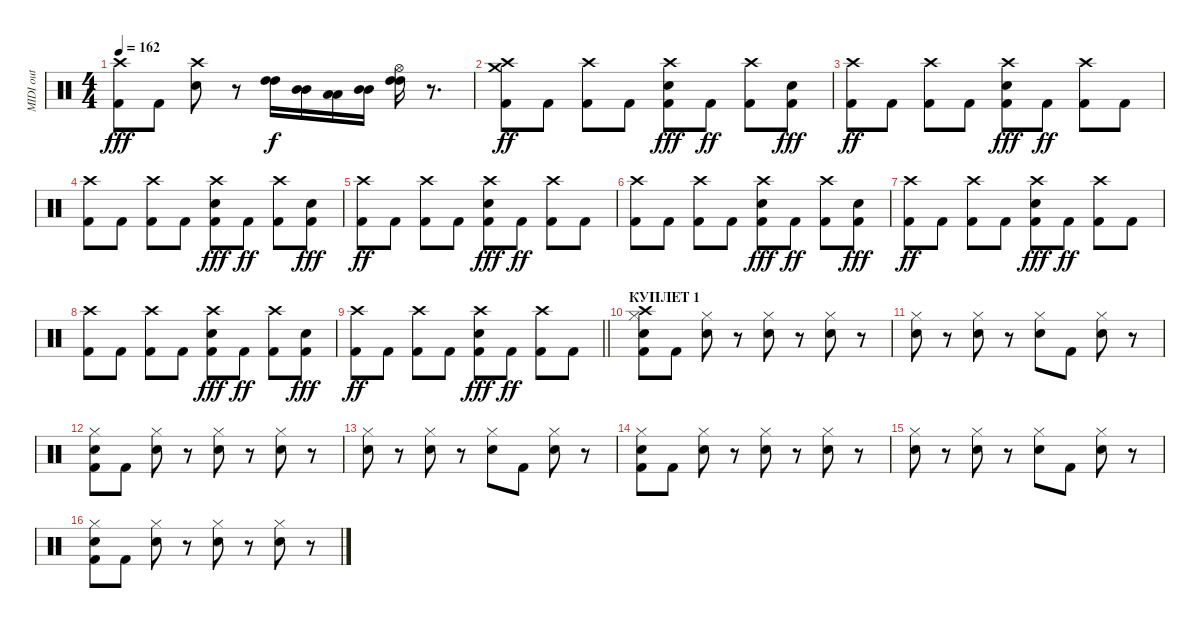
\track ("MIDI out" "MIDI out") {instrument percussion}
\staff {score}
\articulation defaults
\ts (4 4)
\tempo 162
\clef neutral
\ks c
("Crash high (hit)" "Kick (hit) 2").8{dy fff} "Kick (hit) 2".8 ("Crash high (hit)" "Snare (hit) 2").8 r.8 ("High Tom (hit)" "High Tom (hit)").16{dy f} ("Mid Tom (hit)" "Mid Tom (hit)").16 ("Low Tom (hit)" "Low Tom (hit)").16 ("Mid Tom (hit)" "Mid Tom (hit)").16 ("Hi-Hat (open)" "High Tom (hit)" "High Tom (hit)").16 r.8{d} |
("Crash medium (hit)" "Crash high (hit)" "Kick (hit) 2").8{dy ff} "Kick (hit) 2".8 ("Kick (hit) 2" "Crash high (hit)").8 "Kick (hit) 2".8 ("Crash high (hit)" "Kick (hit) 2" "Snare (hit) 2").8{dy fff} "Kick (hit) 2".8{dy ff} ("Kick (hit) 2" "Crash high (hit)").8 ("Kick (hit) 2" "Snare (hit) 2").8{dy fff} |
("Kick (hit) 2" "Crash high (hit)").8{dy ff} "Kick (hit) 2".8 ("Kick (hit) 2" "Crash high (hit)").8 "Kick (hit) 2".8 ("Kick (hit) 2" "Crash high (hit)" "Snare (hit) 2").8{dy fff} "Kick (hit) 2".8{dy ff} ("Kick (hit) 2" "Crash high (hit)").8 "Kick (hit) 2".8 |
("Crash high (hit)" "Kick (hit) 2").8 "Kick (hit) 2".8 ("Kick (hit) 2" "Crash high (hit)").8 "Kick (hit) 2".8 ("Crash high (hit)" "Kick (hit) 2" "Snare (hit) 2").8{dy fff} "Kick (hit) 2".8{dy ff} ("Kick (hit) 2" "Crash high (hit)").8 ("Kick (hit) 2" "Snare (hit) 2").8{dy fff} |
("Kick (hit) 2" "Crash high (hit)").8{dy ff} "Kick (hit) 2".8 ("Kick (hit) 2" "Crash high (hit)").8 "Kick (hit) 2".8 ("Kick (hit) 2" "Crash high (hit)" "Snare (hit) 2").8{dy fff} "Kick (hit) 2".8{dy ff} ("Kick (hit) 2" "Crash high (hit)").8 "Kick (hit) 2".8 |
("Crash high (hit)" "Kick (hit) 2").8 "Kick (hit) 2".8 ("Kick (hit) 2" "Crash high (hit)").8 "Kick (hit) 2".8 ("Crash high (hit)" "Kick (hit) 2" "Snare (hit) 2").8{dy fff} "Kick (hit) 2".8{dy ff} ("Kick (hit) 2" "Crash high (hit)").8 ("Kick (hit) 2" "Snare (hit) 2").8{dy fff} |
("Kick (hit) 2" "Crash high (hit)").8{dy ff} "Kick (hit) 2".8 ("Kick (hit) 2" "Crash high (hit)").8 "Kick (hit) 2".8 ("Kick (hit) 2" "Crash high (hit)" "Snare (hit) 2").8{dy fff} "Kick (hit) 2".8{dy ff} ("Kick (hit) 2" "Crash high (hit)").8 "Kick (hit) 2".8 |
("Crash high (hit)" "Kick (hit) 2").8 "Kick (hit) 2".8 ("Kick (hit) 2" "Crash high (hit)").8 "Kick (hit) 2".8 ("Crash high (hit)" "Kick (hit) 2" "Snare (hit) 2").8{dy fff} "Kick (hit) 2".8{dy ff} ("Kick (hit) 2" "Crash high (hit)").8 ("Kick (hit) 2" "Snare (hit) 2").8{dy fff} |
\barLineRight lightlight
("Kick (hit) 2" "Crash high (hit)").8{dy ff} "Kick (hit) 2".8 ("Kick (hit) 2" "Crash high (hit)").8 "Kick (hit) 2".8 ("Kick (hit) 2" "Crash high (hit)" "Snare (hit) 2").8{dy fff} "Kick (hit) 2".8{dy ff} ("Kick (hit) 2" "Crash high (hit)").8 "Kick (hit) 2".8 |
\section ("" "КУПЛЕТ 1")
("Crash high (hit)" "Snare (hit) 2" "Kick (hit) 2" "Hi-Hat (closed)").8 "Kick (hit) 2".8 ("Snare (hit) 2" "Hi-Hat (closed)").8 r.8 ("Snare (hit) 2" "Hi-Hat (closed)").8 r.8 ("Snare (hit) 2" "Hi-Hat (closed)").8 r.8 |
("Snare (hit) 2" "Hi-Hat (closed)").8 r.8 ("Snare (hit) 2" "Hi-Hat (closed)").8 r.8 ("Snare (hit) 2" "Hi-Hat (closed)").8 "Kick (hit) 2".8 ("Snare (hit) 2" "Hi-Hat (closed)").8 r.8 |
("Snare (hit) 2" "Kick (hit) 2" "Hi-Hat (closed)").8 "Kick (hit) 2".8 ("Snare (hit) 2" "Hi-Hat (closed)").8 r.8 ("Snare (hit) 2" "Hi-Hat (closed)").8 r.8 ("Snare (hit) 2" "Hi-Hat (closed)").8 r.8 |
("Snare (hit) 2" "Hi-Hat (closed)").8 r.8 ("Snare (hit) 2" "Hi-Hat (closed)").8 r.8 ("Snare (hit) 2" "Hi-Hat (closed)").8 "Kick (hit) 2".8 ("Snare (hit) 2" "Hi-Hat (closed)").8 r.8 |
("Snare (hit) 2" "Kick (hit) 2" "Hi-Hat (closed)").8 "Kick (hit) 2".8 ("Snare (hit) 2" "Hi-Hat (closed)").8 r.8 ("Snare (hit) 2" "Hi-Hat (closed)").8 r.8 ("Snare (hit) 2" "Hi-Hat (closed)").8 r.8 |
("Snare (hit) 2" "Hi-Hat (closed)").8 r.8 ("Snare (hit) 2" "Hi-Hat (closed)").8 r.8 ("Snare (hit) 2" "Hi-Hat (closed)").8 "Kick (hit) 2".8 ("Snare (hit) 2" "Hi-Hat (closed)").8 r.8 |
("Snare (hit) 2" "Kick (hit) 2" "Hi-Hat (closed)").8 "Kick (hit) 2".8 ("Snare (hit) 2" "Hi-Hat (closed)").8 r.8 ("Snare (hit) 2" "Hi-Hat (closed)").8 r.8 ("Snare (hit) 2" "Hi-Hat (closed)").8 r.8
